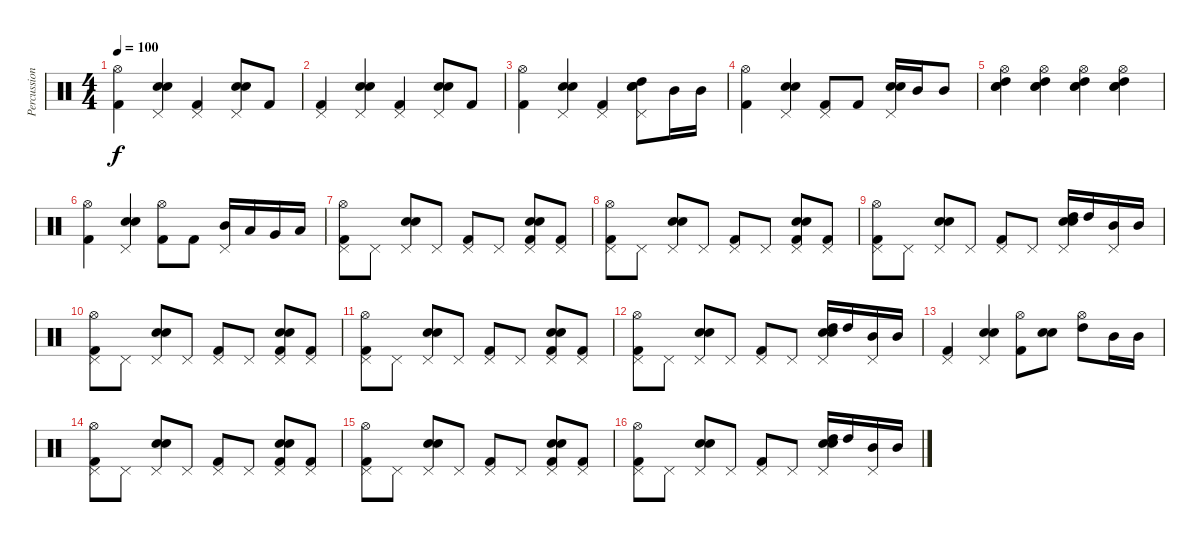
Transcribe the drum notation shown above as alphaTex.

\track ("Percussioni" "Percussion") {instrument percussion}
\staff {score}
\articulation defaults
\ts (4 4)
\tempo 100
\clef neutral
\ks c
("Hi-Hat (open)" "Kick (hit) 2").4{dy f} ("Snare (hit) 2" "Electric Snare (hit)" "Pedal Hi-Hat (hit)").4 ("Kick (hit) 2" "Pedal Hi-Hat (hit)").4 ("Snare (hit) 2" "Electric Snare (hit)" "Pedal Hi-Hat (hit)").8 "Kick (hit) 2".8 |
("Kick (hit) 2" "Pedal Hi-Hat (hit)").4 ("Snare (hit) 2" "Electric Snare (hit)" "Pedal Hi-Hat (hit)").4 ("Kick (hit) 2" "Pedal Hi-Hat (hit)").4 ("Snare (hit) 2" "Electric Snare (hit)" "Pedal Hi-Hat (hit)").8 "Kick (hit) 2".8 |
("Hi-Hat (open)" "Kick (hit) 2").4 ("Snare (hit) 2" "Electric Snare (hit)" "Pedal Hi-Hat (hit)").4 ("Kick (hit) 2" "Pedal Hi-Hat (hit)").4 ("Snare (hit) 2" "Electric Snare (hit)" "High Tom (hit)" "Pedal Hi-Hat (hit)").8 "Mid Tom (hit)".16 "Mid Tom (hit)".16 |
("Hi-Hat (open)" "Kick (hit) 2").4 ("Snare (hit) 2" "Electric Snare (hit)" "Pedal Hi-Hat (hit)").4 ("Kick (hit) 2" "Pedal Hi-Hat (hit)").8 "Kick (hit) 2".8 ("Snare (hit) 2" "Electric Snare (hit)" "Pedal Hi-Hat (hit)").16 "Mid Tom (hit)".16 "Mid Tom (hit)".8 |
("Hi-Hat (open)" "Snare (hit) 2" "Electric Snare (hit)" "High Tom (hit)").4 ("Hi-Hat (open)" "Snare (hit) 2" "Electric Snare (hit)" "High Tom (hit)").4 ("Hi-Hat (open)" "Snare (hit) 2" "Electric Snare (hit)" "High Tom (hit)").4 ("Hi-Hat (open)" "Snare (hit) 2" "Electric Snare (hit)" "High Tom (hit)").4 |
("Hi-Hat (open)" "Kick (hit) 2").4 ("Snare (hit) 2" "Electric Snare (hit)" "Pedal Hi-Hat (hit)").4 ("Hi-Hat (open)" "Kick (hit) 2").8 "Kick (hit) 2".8 ("Mid Tom (hit)" "Pedal Hi-Hat (hit)").16 "Low Tom (hit)".16 "Very Low Tom (hit)".16 "Low Floor Tom (hit)".16 |
("Hi-Hat (open)" "Kick (hit) 2" "Pedal Hi-Hat (hit)").8 "Pedal Hi-Hat (hit)".8 ("Snare (hit) 2" "Electric Snare (hit)" "Pedal Hi-Hat (hit)").8 "Pedal Hi-Hat (hit)".8 ("Kick (hit) 2" "Pedal Hi-Hat (hit)").8 "Pedal Hi-Hat (hit)".8 ("Snare (hit) 2" "Electric Snare (hit)" "Kick (hit) 2" "Pedal Hi-Hat (hit)").8 ("Kick (hit) 2" "Pedal Hi-Hat (hit)").8 |
("Hi-Hat (open)" "Kick (hit) 2" "Pedal Hi-Hat (hit)").8 "Pedal Hi-Hat (hit)".8 ("Snare (hit) 2" "Electric Snare (hit)" "Pedal Hi-Hat (hit)").8 "Pedal Hi-Hat (hit)".8 ("Kick (hit) 2" "Pedal Hi-Hat (hit)").8 "Pedal Hi-Hat (hit)".8 ("Snare (hit) 2" "Electric Snare (hit)" "Kick (hit) 2" "Pedal Hi-Hat (hit)").8 ("Kick (hit) 2" "Pedal Hi-Hat (hit)").8 |
("Hi-Hat (open)" "Kick (hit) 2" "Pedal Hi-Hat (hit)").8 "Pedal Hi-Hat (hit)".8 ("Snare (hit) 2" "Electric Snare (hit)" "Pedal Hi-Hat (hit)").8 "Pedal Hi-Hat (hit)".8 ("Kick (hit) 2" "Pedal Hi-Hat (hit)").8 "Pedal Hi-Hat (hit)".8 ("Snare (hit) 2" "Electric Snare (hit)" "High Tom (hit)" "Pedal Hi-Hat (hit)").16 "High Tom (hit)".16 ("Mid Tom (hit)" "Pedal Hi-Hat (hit)").16 "Mid Tom (hit)".16 |
("Hi-Hat (open)" "Kick (hit) 2" "Pedal Hi-Hat (hit)").8 "Pedal Hi-Hat (hit)".8 ("Snare (hit) 2" "Electric Snare (hit)" "Pedal Hi-Hat (hit)").8 "Pedal Hi-Hat (hit)".8 ("Kick (hit) 2" "Pedal Hi-Hat (hit)").8 "Pedal Hi-Hat (hit)".8 ("Snare (hit) 2" "Electric Snare (hit)" "Kick (hit) 2" "Pedal Hi-Hat (hit)").8 ("Kick (hit) 2" "Pedal Hi-Hat (hit)").8 |
("Hi-Hat (open)" "Kick (hit) 2" "Pedal Hi-Hat (hit)").8 "Pedal Hi-Hat (hit)".8 ("Snare (hit) 2" "Electric Snare (hit)" "Pedal Hi-Hat (hit)").8 "Pedal Hi-Hat (hit)".8 ("Kick (hit) 2" "Pedal Hi-Hat (hit)").8 "Pedal Hi-Hat (hit)".8 ("Snare (hit) 2" "Electric Snare (hit)" "Kick (hit) 2" "Pedal Hi-Hat (hit)").8 ("Kick (hit) 2" "Pedal Hi-Hat (hit)").8 |
("Hi-Hat (open)" "Kick (hit) 2" "Pedal Hi-Hat (hit)").8 "Pedal Hi-Hat (hit)".8 ("Snare (hit) 2" "Electric Snare (hit)" "Pedal Hi-Hat (hit)").8 "Pedal Hi-Hat (hit)".8 ("Kick (hit) 2" "Pedal Hi-Hat (hit)").8 "Pedal Hi-Hat (hit)".8 ("Snare (hit) 2" "Electric Snare (hit)" "High Tom (hit)" "Pedal Hi-Hat (hit)").16 "High Tom (hit)".16 ("Mid Tom (hit)" "Pedal Hi-Hat (hit)").16 "Mid Tom (hit)".16 |
("Kick (hit) 2" "Pedal Hi-Hat (hit)").4 ("Snare (hit) 2" "Electric Snare (hit)" "Pedal Hi-Hat (hit)").4 ("Hi-Hat (open)" "Kick (hit) 2").8 ("Snare (hit) 2" "Electric Snare (hit)").8 ("Hi-Hat (open)" "High Tom (hit)").8 "Mid Tom (hit)".16 "Mid Tom (hit)".16 |
("Hi-Hat (open)" "Kick (hit) 2" "Pedal Hi-Hat (hit)").8 "Pedal Hi-Hat (hit)".8 ("Snare (hit) 2" "Electric Snare (hit)" "Pedal Hi-Hat (hit)").8 "Pedal Hi-Hat (hit)".8 ("Kick (hit) 2" "Pedal Hi-Hat (hit)").8 "Pedal Hi-Hat (hit)".8 ("Snare (hit) 2" "Electric Snare (hit)" "Kick (hit) 2" "Pedal Hi-Hat (hit)").8 ("Kick (hit) 2" "Pedal Hi-Hat (hit)").8 |
("Hi-Hat (open)" "Kick (hit) 2" "Pedal Hi-Hat (hit)").8 "Pedal Hi-Hat (hit)".8 ("Snare (hit) 2" "Electric Snare (hit)" "Pedal Hi-Hat (hit)").8 "Pedal Hi-Hat (hit)".8 ("Kick (hit) 2" "Pedal Hi-Hat (hit)").8 "Pedal Hi-Hat (hit)".8 ("Snare (hit) 2" "Electric Snare (hit)" "Kick (hit) 2" "Pedal Hi-Hat (hit)").8 ("Kick (hit) 2" "Pedal Hi-Hat (hit)").8 |
("Hi-Hat (open)" "Kick (hit) 2" "Pedal Hi-Hat (hit)").8 "Pedal Hi-Hat (hit)".8 ("Snare (hit) 2" "Electric Snare (hit)" "Pedal Hi-Hat (hit)").8 "Pedal Hi-Hat (hit)".8 ("Kick (hit) 2" "Pedal Hi-Hat (hit)").8 "Pedal Hi-Hat (hit)".8 ("Snare (hit) 2" "Electric Snare (hit)" "High Tom (hit)" "Pedal Hi-Hat (hit)").16 "High Tom (hit)".16 ("Mid Tom (hit)" "Pedal Hi-Hat (hit)").16 "Mid Tom (hit)".16
